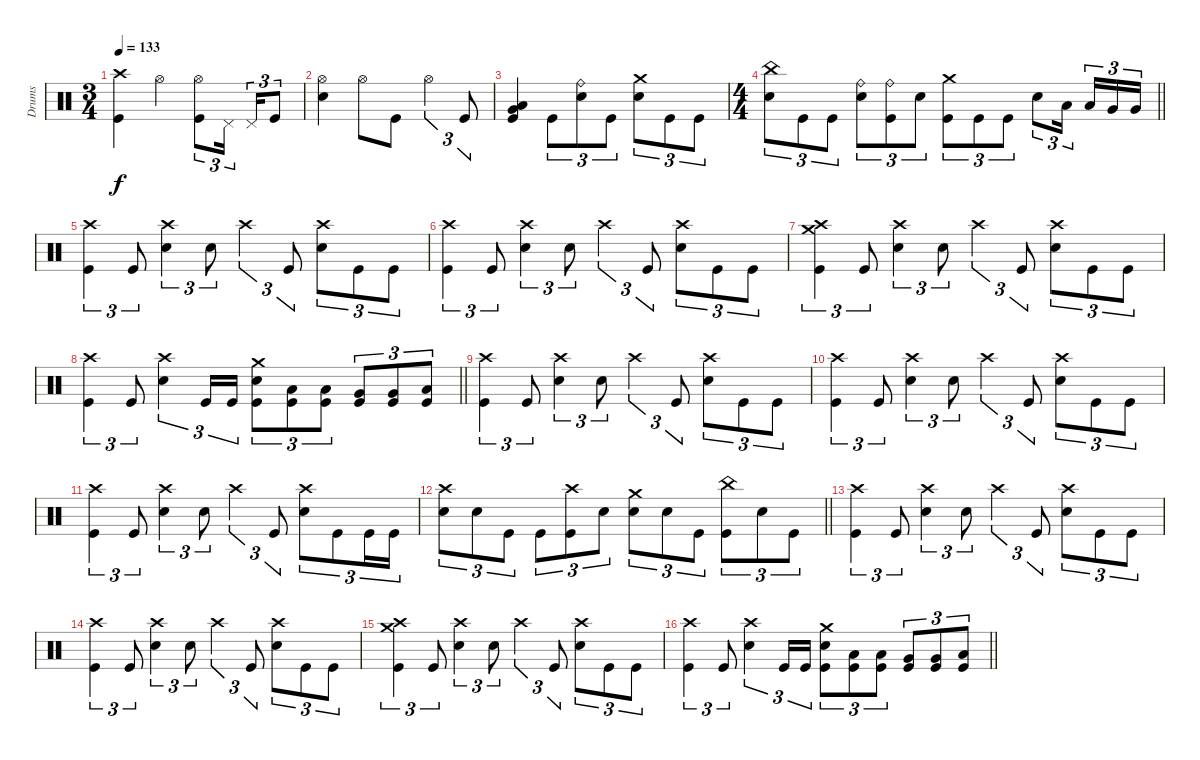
\track ("Drums" "Drums") {instrument percussion}
\staff
\articulation defaults
\ts (3 4)
\tempo 133
\clef neutral
\ks c
("Crash high (hit)" "Kick (hit)").4{dy f} "Hi-Hat (open)".4 ("Hi-Hat (open)" "Kick (hit)").8{tu (3 2)} "Pedal Hi-Hat (hit)".16{tu (3 2) beam splitsecondary} "Pedal Hi-Hat (hit)".16{tu (3 2)} "Kick (hit)".8{tu (3 2)} |
("Hi-Hat (open)" "Electric Snare (hit)").4 "Hi-Hat (open)".8 "Kick (hit)".8 "Hi-Hat (open)".4{tu (3 2)} "Kick (hit)".8{tu (3 2)} |
("Very Low Tom (hit)" "Low Floor Tom (hit)" "Kick (hit)").4 "Kick (hit)".8{tu (3 2)} ("Ride (bell)" "Electric Snare (hit)").8{tu (3 2)} "Kick (hit)".8{tu (3 2)} ("Crash medium (hit)" "Electric Snare (hit)").8{tu (3 2)} "Kick (hit)".8{tu (3 2)} "Kick (hit)".8{tu (3 2)} |
\ts (4 4)
\barLineRight lightlight
("China (hit)" "Electric Snare (hit)").8{tu (3 2)} "Kick (hit)".8{tu (3 2)} "Kick (hit)".8{tu (3 2)} ("Ride (bell)" "Electric Snare (hit)").8{tu (3 2)} ("Ride (bell)" "Kick (hit)").8{tu (3 2)} "Electric Snare (hit)".8{tu (3 2)} ("Crash medium (hit)" "Kick (hit)").8{tu (3 2)} "Kick (hit)".8{tu (3 2)} "Kick (hit)".8{tu (3 2)} "Electric Snare (hit)".8{tu (3 2)} "Low Tom (hit)".16{tu (3 2) beam splitsecondary} "Low Tom (hit)".16{tu (3 2)} "Very Low Tom (hit)".16{tu (3 2)} "Very Low Tom (hit)".16{tu (3 2)} |
\section ("" "")
("Crash high (hit)" "Kick (hit)").4{tu (3 2)} "Kick (hit)".8{tu (3 2)} ("Crash high (hit)" "Electric Snare (hit)").4{tu (3 2)} "Electric Snare (hit)".8{tu (3 2)} "Crash high (hit)".4{tu (3 2)} "Kick (hit)".8{tu (3 2)} ("Crash high (hit)" "Electric Snare (hit)").8{tu (3 2)} "Kick (hit)".8{tu (3 2)} "Kick (hit)".8{tu (3 2)} |
("Crash high (hit)" "Kick (hit)").4{tu (3 2)} "Kick (hit)".8{tu (3 2)} ("Crash high (hit)" "Electric Snare (hit)").4{tu (3 2)} "Electric Snare (hit)".8{tu (3 2)} "Crash high (hit)".4{tu (3 2)} "Kick (hit)".8{tu (3 2)} ("Crash high (hit)" "Electric Snare (hit)").8{tu (3 2)} "Kick (hit)".8{tu (3 2)} "Kick (hit)".8{tu (3 2)} |
("Crash high (hit)" "Crash medium (hit)" "Kick (hit)").4{tu (3 2)} "Kick (hit)".8{tu (3 2)} ("Crash high (hit)" "Electric Snare (hit)").4{tu (3 2)} "Electric Snare (hit)".8{tu (3 2)} "Crash high (hit)".4{tu (3 2)} "Kick (hit)".8{tu (3 2)} ("Crash high (hit)" "Electric Snare (hit)").8{tu (3 2)} "Kick (hit)".8{tu (3 2)} "Kick (hit)".8{tu (3 2)} |
\barLineRight lightlight
("Crash high (hit)" "Kick (hit)").4{tu (3 2)} "Kick (hit)".8{tu (3 2)} ("Crash high (hit)" "Electric Snare (hit)").4{tu (3 2)} "Kick (hit)".16{tu (3 2)} "Kick (hit)".16{tu (3 2)} ("Crash medium (hit)" "Electric Snare (hit)" "Kick (hit)").8{tu (3 2)} ("Low Tom (hit)" "Kick (hit)").8{tu (3 2)} ("Low Tom (hit)" "Kick (hit)").8{tu (3 2)} ("Very Low Tom (hit)" "Kick (hit)").8{tu (3 2)} ("Very Low Tom (hit)" "Kick (hit)").8{tu (3 2)} ("Low Floor Tom (hit)" "Kick (hit)").8{tu (3 2)} |
("Crash high (hit)" "Kick (hit)").4{tu (3 2)} "Kick (hit)".8{tu (3 2)} ("Crash high (hit)" "Electric Snare (hit)").4{tu (3 2)} "Electric Snare (hit)".8{tu (3 2)} "Crash high (hit)".4{tu (3 2)} "Kick (hit)".8{tu (3 2)} ("Crash high (hit)" "Electric Snare (hit)").8{tu (3 2)} "Kick (hit)".8{tu (3 2)} "Kick (hit)".8{tu (3 2)} |
("Crash high (hit)" "Kick (hit)").4{tu (3 2)} "Kick (hit)".8{tu (3 2)} ("Crash high (hit)" "Electric Snare (hit)").4{tu (3 2)} "Electric Snare (hit)".8{tu (3 2)} "Crash high (hit)".4{tu (3 2)} "Kick (hit)".8{tu (3 2)} ("Crash high (hit)" "Electric Snare (hit)").8{tu (3 2)} "Kick (hit)".8{tu (3 2)} "Kick (hit)".8{tu (3 2)} |
("Crash high (hit)" "Kick (hit)").4{tu (3 2)} "Kick (hit)".8{tu (3 2)} ("Crash high (hit)" "Electric Snare (hit)").4{tu (3 2)} "Electric Snare (hit)".8{tu (3 2)} "Crash high (hit)".4{tu (3 2)} "Kick (hit)".8{tu (3 2)} ("Crash high (hit)" "Electric Snare (hit)").8{tu (3 2)} "Kick (hit)".8{tu (3 2)} "Kick (hit)".16{tu (3 2)} "Kick (hit)".16{tu (3 2)} |
\barLineRight lightlight
("Crash high (hit)" "Electric Snare (hit)").8{tu (3 2)} "Electric Snare (hit)".8{tu (3 2)} "Kick (hit)".8{tu (3 2)} "Kick (hit)".8{tu (3 2)} ("Crash high (hit)" "Kick (hit)").8{tu (3 2)} "Electric Snare (hit)".8{tu (3 2)} ("Crash medium (hit)" "Electric Snare (hit)").8{tu (3 2)} "Electric Snare (hit)".8{tu (3 2)} "Kick (hit)".8{tu (3 2)} ("China (hit)" "Kick (hit)").8{tu (3 2)} "Electric Snare (hit)".8{tu (3 2)} "Kick (hit)".8{tu (3 2)} |
("Crash high (hit)" "Kick (hit)").4{tu (3 2)} "Kick (hit)".8{tu (3 2)} ("Crash high (hit)" "Electric Snare (hit)").4{tu (3 2)} "Electric Snare (hit)".8{tu (3 2)} "Crash high (hit)".4{tu (3 2)} "Kick (hit)".8{tu (3 2)} ("Crash high (hit)" "Electric Snare (hit)").8{tu (3 2)} "Kick (hit)".8{tu (3 2)} "Kick (hit)".8{tu (3 2)} |
("Crash high (hit)" "Kick (hit)").4{tu (3 2)} "Kick (hit)".8{tu (3 2)} ("Crash high (hit)" "Electric Snare (hit)").4{tu (3 2)} "Electric Snare (hit)".8{tu (3 2)} "Crash high (hit)".4{tu (3 2)} "Kick (hit)".8{tu (3 2)} ("Crash high (hit)" "Electric Snare (hit)").8{tu (3 2)} "Kick (hit)".8{tu (3 2)} "Kick (hit)".8{tu (3 2)} |
("Crash high (hit)" "Crash medium (hit)" "Kick (hit)").4{tu (3 2)} "Kick (hit)".8{tu (3 2)} ("Crash high (hit)" "Electric Snare (hit)").4{tu (3 2)} "Electric Snare (hit)".8{tu (3 2)} "Crash high (hit)".4{tu (3 2)} "Kick (hit)".8{tu (3 2)} ("Crash high (hit)" "Electric Snare (hit)").8{tu (3 2)} "Kick (hit)".8{tu (3 2)} "Kick (hit)".8{tu (3 2)} |
\barLineRight lightlight
("Crash high (hit)" "Kick (hit)").4{tu (3 2)} "Kick (hit)".8{tu (3 2)} ("Crash high (hit)" "Electric Snare (hit)").4{tu (3 2)} "Kick (hit)".16{tu (3 2)} "Kick (hit)".16{tu (3 2)} ("Crash medium (hit)" "Electric Snare (hit)" "Kick (hit)").8{tu (3 2)} ("Low Tom (hit)" "Kick (hit)").8{tu (3 2)} ("Low Tom (hit)" "Kick (hit)").8{tu (3 2)} ("Very Low Tom (hit)" "Kick (hit)").8{tu (3 2)} ("Very Low Tom (hit)" "Kick (hit)").8{tu (3 2)} ("Low Floor Tom (hit)" "Kick (hit)").8{tu (3 2)}
